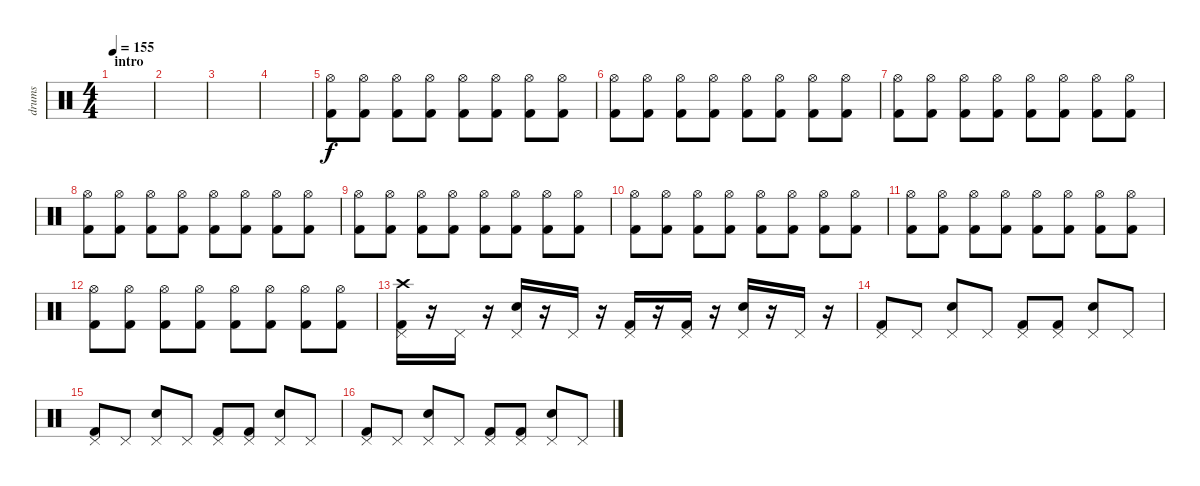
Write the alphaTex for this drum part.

\track ("drums" "drums") {instrument percussion}
\staff {score}
\articulation defaults
\ts (4 4)
\section ("" "intro")
\tempo 155
\clef neutral
\ks c
|
|
|
|
("Kick (hit) 2" "Hi-Hat (open)").8{volume 16} ("Kick (hit) 2" "Hi-Hat (open)").8 ("Kick (hit) 2" "Hi-Hat (open)").8 ("Kick (hit) 2" "Hi-Hat (open)").8 ("Kick (hit) 2" "Hi-Hat (open)").8 ("Kick (hit) 2" "Hi-Hat (open)").8 ("Kick (hit) 2" "Hi-Hat (open)").8 ("Kick (hit) 2" "Hi-Hat (open)").8 |
("Kick (hit) 2" "Hi-Hat (open)").8 ("Kick (hit) 2" "Hi-Hat (open)").8 ("Kick (hit) 2" "Hi-Hat (open)").8 ("Kick (hit) 2" "Hi-Hat (open)").8 ("Kick (hit) 2" "Hi-Hat (open)").8 ("Kick (hit) 2" "Hi-Hat (open)").8 ("Kick (hit) 2" "Hi-Hat (open)").8 ("Kick (hit) 2" "Hi-Hat (open)").8 |
("Kick (hit) 2" "Hi-Hat (open)").8 ("Kick (hit) 2" "Hi-Hat (open)").8 ("Kick (hit) 2" "Hi-Hat (open)").8 ("Kick (hit) 2" "Hi-Hat (open)").8 ("Kick (hit) 2" "Hi-Hat (open)").8 ("Kick (hit) 2" "Hi-Hat (open)").8 ("Kick (hit) 2" "Hi-Hat (open)").8 ("Kick (hit) 2" "Hi-Hat (open)").8 |
("Kick (hit) 2" "Hi-Hat (open)").8 ("Kick (hit) 2" "Hi-Hat (open)").8 ("Kick (hit) 2" "Hi-Hat (open)").8 ("Kick (hit) 2" "Hi-Hat (open)").8 ("Kick (hit) 2" "Hi-Hat (open)").8 ("Kick (hit) 2" "Hi-Hat (open)").8 ("Kick (hit) 2" "Hi-Hat (open)").8 ("Kick (hit) 2" "Hi-Hat (open)").8 |
("Kick (hit) 2" "Hi-Hat (open)").8 ("Kick (hit) 2" "Hi-Hat (open)").8 ("Kick (hit) 2" "Hi-Hat (open)").8 ("Kick (hit) 2" "Hi-Hat (open)").8 ("Kick (hit) 2" "Hi-Hat (open)").8 ("Kick (hit) 2" "Hi-Hat (open)").8 ("Kick (hit) 2" "Hi-Hat (open)").8 ("Kick (hit) 2" "Hi-Hat (open)").8 |
("Kick (hit) 2" "Hi-Hat (open)").8 ("Kick (hit) 2" "Hi-Hat (open)").8 ("Kick (hit) 2" "Hi-Hat (open)").8 ("Kick (hit) 2" "Hi-Hat (open)").8 ("Kick (hit) 2" "Hi-Hat (open)").8 ("Kick (hit) 2" "Hi-Hat (open)").8 ("Kick (hit) 2" "Hi-Hat (open)").8 ("Kick (hit) 2" "Hi-Hat (open)").8 |
("Kick (hit) 2" "Hi-Hat (open)").8 ("Kick (hit) 2" "Hi-Hat (open)").8 ("Kick (hit) 2" "Hi-Hat (open)").8 ("Kick (hit) 2" "Hi-Hat (open)").8 ("Kick (hit) 2" "Hi-Hat (open)").8 ("Kick (hit) 2" "Hi-Hat (open)").8 ("Kick (hit) 2" "Hi-Hat (open)").8 ("Kick (hit) 2" "Hi-Hat (open)").8 |
("Kick (hit) 2" "Hi-Hat (open)").8 ("Kick (hit) 2" "Hi-Hat (open)").8 ("Kick (hit) 2" "Hi-Hat (open)").8 ("Kick (hit) 2" "Hi-Hat (open)").8 ("Kick (hit) 2" "Hi-Hat (open)").8 ("Kick (hit) 2" "Hi-Hat (open)").8 ("Kick (hit) 2" "Hi-Hat (open)").8 ("Kick (hit) 2" "Hi-Hat (open)").8 |
("Kick (hit) 2" "Pedal Hi-Hat (hit)" "Crash high (hit)").16 r.16 "Pedal Hi-Hat (hit)".16 r.16 ("Electric Snare (hit)" "Pedal Hi-Hat (hit)").16 r.16 "Pedal Hi-Hat (hit)".16 r.16 ("Kick (hit) 2" "Pedal Hi-Hat (hit)").16 r.16 ("Kick (hit) 2" "Pedal Hi-Hat (hit)").16 r.16 ("Electric Snare (hit)" "Pedal Hi-Hat (hit)").16 r.16 "Pedal Hi-Hat (hit)".16 r.16 |
("Kick (hit) 2" "Pedal Hi-Hat (hit)").8 "Pedal Hi-Hat (hit)".8 ("Electric Snare (hit)" "Pedal Hi-Hat (hit)").8 "Pedal Hi-Hat (hit)".8 ("Kick (hit) 2" "Pedal Hi-Hat (hit)").8 ("Kick (hit) 2" "Pedal Hi-Hat (hit)").8 ("Electric Snare (hit)" "Pedal Hi-Hat (hit)").8 "Pedal Hi-Hat (hit)".8 |
("Kick (hit) 2" "Pedal Hi-Hat (hit)").8 "Pedal Hi-Hat (hit)".8 ("Electric Snare (hit)" "Pedal Hi-Hat (hit)").8 "Pedal Hi-Hat (hit)".8 ("Kick (hit) 2" "Pedal Hi-Hat (hit)").8 ("Kick (hit) 2" "Pedal Hi-Hat (hit)").8 ("Electric Snare (hit)" "Pedal Hi-Hat (hit)").8 "Pedal Hi-Hat (hit)".8 |
("Kick (hit) 2" "Pedal Hi-Hat (hit)").8 "Pedal Hi-Hat (hit)".8 ("Electric Snare (hit)" "Pedal Hi-Hat (hit)").8 "Pedal Hi-Hat (hit)".8 ("Kick (hit) 2" "Pedal Hi-Hat (hit)").8 ("Kick (hit) 2" "Pedal Hi-Hat (hit)").8 ("Electric Snare (hit)" "Pedal Hi-Hat (hit)").8 "Pedal Hi-Hat (hit)".8
